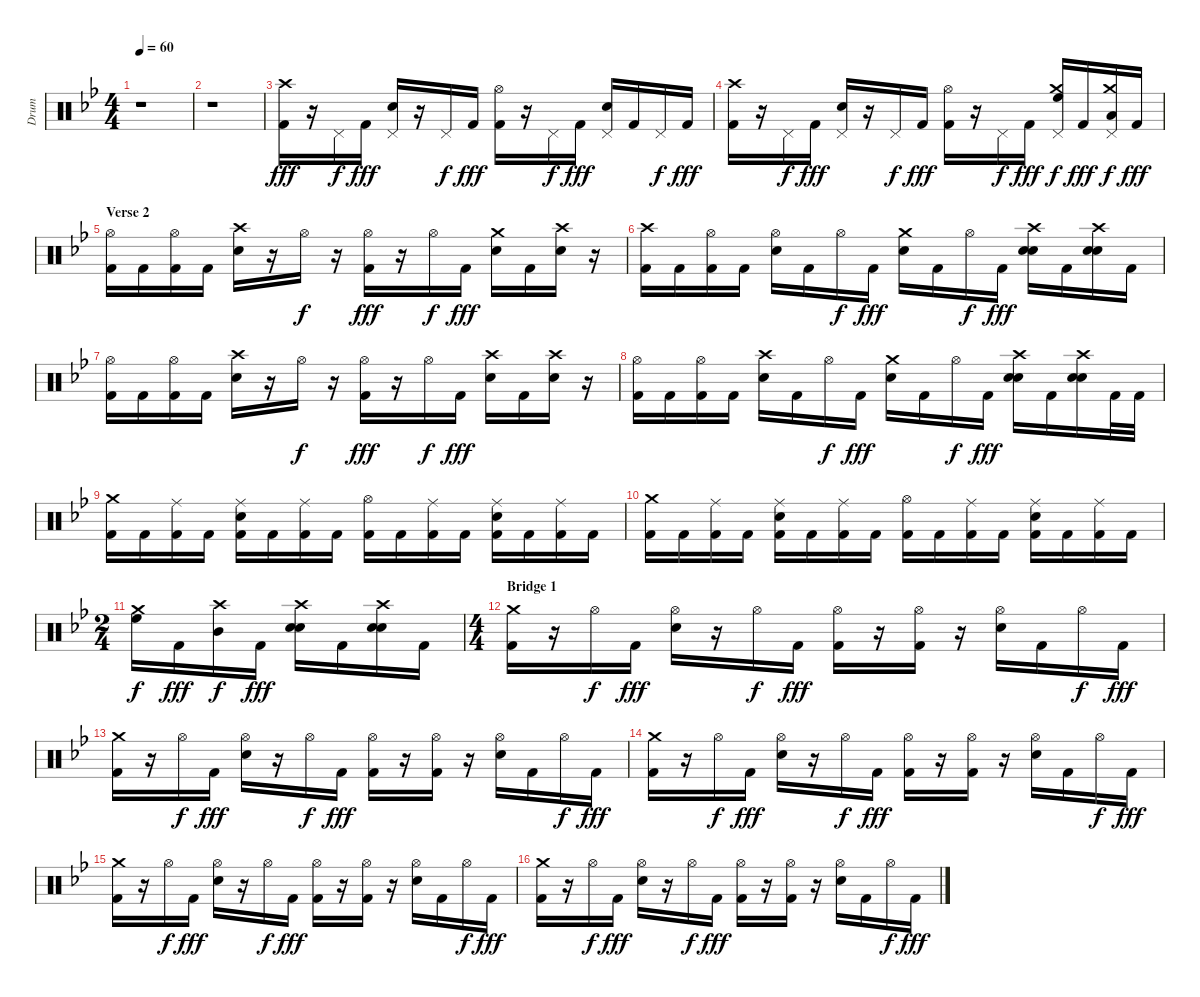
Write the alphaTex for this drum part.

\track ("Drum" "Drum") {instrument percussion}
\staff {score}
\articulation defaults
\ts (4 4)
\tempo 60
\clef neutral
\ks gminor
r.1{dy f} |
r.1 |
("Kick (hit) 2" "Crash high (hit)").16{dy fff} r.16 "Pedal Hi-Hat (hit)".16{dy f} "Kick (hit) 2".16{dy fff} ("Electric Snare (hit)" "Pedal Hi-Hat (hit)").16 r.16 "Pedal Hi-Hat (hit)".16{dy f} "Kick (hit) 2".16{dy fff} ("Kick (hit) 2" "Hi-Hat (open)").16 r.16 "Pedal Hi-Hat (hit)".16{dy f} "Kick (hit) 2".16{dy fff} ("Electric Snare (hit)" "Pedal Hi-Hat (hit)").16 "Kick (hit) 2".16 "Pedal Hi-Hat (hit)".16{dy f} "Kick (hit) 2".16{dy fff} |
("Kick (hit) 2" "Crash high (hit)").16 r.16 "Pedal Hi-Hat (hit)".16{dy f} "Kick (hit) 2".16{dy fff} ("Electric Snare (hit)" "Pedal Hi-Hat (hit)").16 r.16 "Pedal Hi-Hat (hit)".16{dy f} "Kick (hit) 2".16{dy fff} ("Kick (hit) 2" "Hi-Hat (open)").16 r.16 "Pedal Hi-Hat (hit)".16{dy f} "Kick (hit) 2".16{dy fff} ("Pedal Hi-Hat (hit)" "Crash medium (hit)" "High Floor Tom (hit)").16{dy f} "Kick (hit) 2".16{dy fff} ("Crash medium (hit)" "Low Tom (hit)" "Pedal Hi-Hat (hit)").16{dy f} "Kick (hit) 2".16{dy fff} |
\section ("" "Verse 2")
("Kick (hit) 2" "Hi-Hat (open)").16 "Kick (hit) 2".16 ("Kick (hit) 2" "Hi-Hat (open)").16 "Kick (hit) 2".16 ("Electric Snare (hit)" "Crash high (hit)").16 r.16 "Hi-Hat (open)".16{dy f} r.16 ("Kick (hit) 2" "Hi-Hat (open)").16{dy fff} r.16 "Hi-Hat (open)".16{dy f} "Kick (hit) 2".16{dy fff} ("Electric Snare (hit)" "Crash medium (hit)").16 "Kick (hit) 2".16 ("Electric Snare (hit)" "Crash high (hit)").16 r.16 |
("Kick (hit) 2" "Crash high (hit)").16 "Kick (hit) 2".16 ("Kick (hit) 2" "Hi-Hat (open)").16 "Kick (hit) 2".16 ("Electric Snare (hit)" "Hi-Hat (open)").16 "Kick (hit) 2".16 "Hi-Hat (open)".16{dy f} "Kick (hit) 2".16{dy fff} ("Electric Snare (hit)" "Crash medium (hit)").16 "Kick (hit) 2".16 "Hi-Hat (open)".16{dy f} "Kick (hit) 2".16{dy fff} ("Electric Snare (hit)" "Electric Snare (hit)" "Crash high (hit)").16 "Kick (hit) 2".16 ("Electric Snare (hit)" "Electric Snare (hit)" "Crash high (hit)").16 "Kick (hit) 2".16 |
("Kick (hit) 2" "Hi-Hat (open)").16 "Kick (hit) 2".16 ("Kick (hit) 2" "Hi-Hat (open)").16 "Kick (hit) 2".16 ("Electric Snare (hit)" "Crash high (hit)").16 r.16 "Hi-Hat (open)".16{dy f} r.16 ("Kick (hit) 2" "Hi-Hat (open)").16{dy fff} r.16 "Hi-Hat (open)".16{dy f} "Kick (hit) 2".16{dy fff} ("Electric Snare (hit)" "Crash high (hit)").16 "Kick (hit) 2".16 ("Electric Snare (hit)" "Crash high (hit)").16 r.16 |
("Kick (hit) 2" "Hi-Hat (open)").16 "Kick (hit) 2".16 ("Kick (hit) 2" "Hi-Hat (open)").16 "Kick (hit) 2".16 ("Electric Snare (hit)" "Crash high (hit)").16 "Kick (hit) 2".16 "Hi-Hat (open)".16{dy f} "Kick (hit) 2".16{dy fff} ("Electric Snare (hit)" "Crash medium (hit)").16 "Kick (hit) 2".16 "Hi-Hat (open)".16{dy f} "Kick (hit) 2".16{dy fff} ("Electric Snare (hit)" "Crash high (hit)" "Electric Snare (hit)").16 "Kick (hit) 2".16 ("Electric Snare (hit)" "Electric Snare (hit)" "Crash high (hit)").16 "Kick (hit) 2".32 "Kick (hit) 2".32 |
("Kick (hit) 2" "Crash medium (hit)").16 "Kick (hit) 2".16 ("Kick (hit) 2" "Ride (middle)").16 "Kick (hit) 2".16 ("Kick (hit) 2" "Electric Snare (hit)" "Ride (middle)").16 "Kick (hit) 2".16 ("Kick (hit) 2" "Ride (middle)").16 "Kick (hit) 2".16 ("Kick (hit) 2" "Hi-Hat (open)").16 "Kick (hit) 2".16 ("Kick (hit) 2" "Ride (middle)").16 "Kick (hit) 2".16 ("Electric Snare (hit)" "Kick (hit) 2" "Ride (middle)").16 "Kick (hit) 2".16 ("Kick (hit) 2" "Ride (middle)").16 "Kick (hit) 2".16 |
("Kick (hit) 2" "Crash medium (hit)").16 "Kick (hit) 2".16 ("Kick (hit) 2" "Ride (middle)").16 "Kick (hit) 2".16 ("Electric Snare (hit)" "Kick (hit) 2" "Ride (middle)").16 "Kick (hit) 2".16 ("Kick (hit) 2" "Ride (middle)").16 "Kick (hit) 2".16 ("Kick (hit) 2" "Hi-Hat (open)").16 "Kick (hit) 2".16 ("Kick (hit) 2" "Ride (middle)").16 "Kick (hit) 2".16 ("Kick (hit) 2" "Electric Snare (hit)" "Ride (middle)").16 "Kick (hit) 2".16 ("Kick (hit) 2" "Ride (middle)").16 "Kick (hit) 2".16 |
\ts (2 4)
("High Floor Tom (hit)" "Crash medium (hit)").16{dy f} "Kick (hit) 2".16{dy fff} ("Mid Tom (hit)" "Crash high (hit)").16{dy f} "Kick (hit) 2".16{dy fff} ("Electric Snare (hit)" "Electric Snare (hit)" "Crash high (hit)").16 "Kick (hit) 2".16 ("Electric Snare (hit)" "Electric Snare (hit)" "Crash high (hit)").16 "Kick (hit) 2".16 |
\ts (4 4)
\section ("" "Bridge 1")
("Kick (hit) 2" "Crash medium (hit)").16 r.16 "Hi-Hat (open)".16{dy f} "Kick (hit) 2".16{dy fff} ("Electric Snare (hit)" "Hi-Hat (open)").16 r.16 "Hi-Hat (open)".16{dy f} "Kick (hit) 2".16{dy fff} ("Kick (hit) 2" "Hi-Hat (open)").16 r.16 ("Kick (hit) 2" "Hi-Hat (open)").16 r.16 ("Electric Snare (hit)" "Hi-Hat (open)").16 "Kick (hit) 2".16 "Hi-Hat (open)".16{dy f} "Kick (hit) 2".16{dy fff} |
("Kick (hit) 2" "Crash medium (hit)").16 r.16 "Hi-Hat (open)".16{dy f} "Kick (hit) 2".16{dy fff} ("Electric Snare (hit)" "Hi-Hat (open)").16 r.16 "Hi-Hat (open)".16{dy f} "Kick (hit) 2".16{dy fff} ("Kick (hit) 2" "Hi-Hat (open)").16 r.16 ("Kick (hit) 2" "Hi-Hat (open)").16 r.16 ("Electric Snare (hit)" "Hi-Hat (open)").16 "Kick (hit) 2".16 "Hi-Hat (open)".16{dy f} "Kick (hit) 2".16{dy fff} |
("Kick (hit) 2" "Crash medium (hit)").16 r.16 "Hi-Hat (open)".16{dy f} "Kick (hit) 2".16{dy fff} ("Electric Snare (hit)" "Hi-Hat (open)").16 r.16 "Hi-Hat (open)".16{dy f} "Kick (hit) 2".16{dy fff} ("Kick (hit) 2" "Hi-Hat (open)").16 r.16 ("Kick (hit) 2" "Hi-Hat (open)").16 r.16 ("Electric Snare (hit)" "Hi-Hat (open)").16 "Kick (hit) 2".16 "Hi-Hat (open)".16{dy f} "Kick (hit) 2".16{dy fff} |
("Kick (hit) 2" "Crash medium (hit)").16 r.16 "Hi-Hat (open)".16{dy f} "Kick (hit) 2".16{dy fff} ("Electric Snare (hit)" "Hi-Hat (open)").16 r.16 "Hi-Hat (open)".16{dy f} "Kick (hit) 2".16{dy fff} ("Kick (hit) 2" "Hi-Hat (open)").16 r.16 ("Kick (hit) 2" "Hi-Hat (open)").16 r.16 ("Electric Snare (hit)" "Hi-Hat (open)").16 "Kick (hit) 2".16 "Hi-Hat (open)".16{dy f} "Kick (hit) 2".16{dy fff} |
("Kick (hit) 2" "Crash medium (hit)").16 r.16 "Hi-Hat (open)".16{dy f} "Kick (hit) 2".16{dy fff} ("Electric Snare (hit)" "Hi-Hat (open)").16 r.16 "Hi-Hat (open)".16{dy f} "Kick (hit) 2".16{dy fff} ("Kick (hit) 2" "Hi-Hat (open)").16 r.16 ("Kick (hit) 2" "Hi-Hat (open)").16 r.16 ("Electric Snare (hit)" "Hi-Hat (open)").16 "Kick (hit) 2".16 "Hi-Hat (open)".16{dy f} "Kick (hit) 2".16{dy fff}
